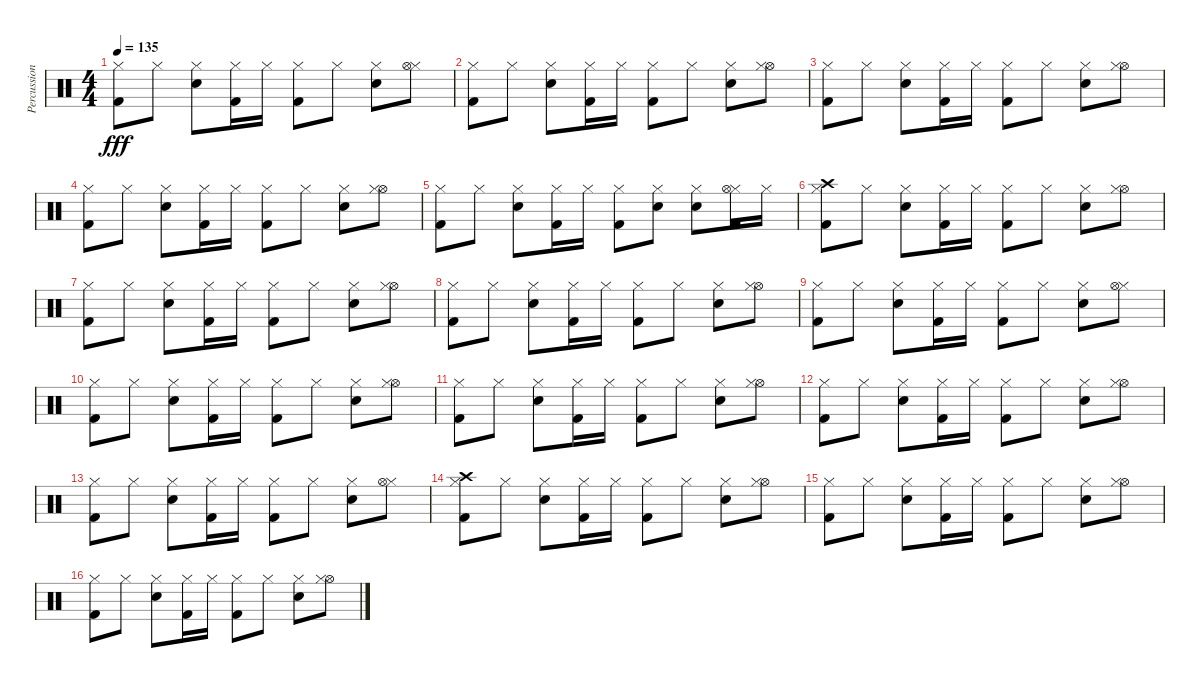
\track ("Percussion" "Percussion") {instrument percussion}
\staff {score}
\articulation defaults
\ts (4 4)
\tempo 135
\clef neutral
\ks c
("Hi-Hat (closed)" "Kick (hit) 2").8{dy fff} "Hi-Hat (closed)".8 ("Hi-Hat (closed)" "Snare (hit) 2").8 ("Kick (hit) 2" "Hi-Hat (closed)").16 "Hi-Hat (closed)".16 ("Hi-Hat (closed)" "Kick (hit) 2").8 "Hi-Hat (closed)".8 ("Snare (hit) 2" "Hi-Hat (closed)").8 ("Hi-Hat (closed)" "Hi-Hat (open)").8 |
("Hi-Hat (closed)" "Kick (hit) 2").8 "Hi-Hat (closed)".8 ("Hi-Hat (closed)" "Snare (hit) 2").8 ("Hi-Hat (closed)" "Kick (hit) 2").16 "Hi-Hat (closed)".16 ("Hi-Hat (closed)" "Kick (hit) 2").8 "Hi-Hat (closed)".8 ("Snare (hit) 2" "Hi-Hat (closed)").8 ("Hi-Hat (open)" "Hi-Hat (closed)").8 |
("Hi-Hat (closed)" "Kick (hit) 2").8 "Hi-Hat (closed)".8 ("Hi-Hat (closed)" "Snare (hit) 2").8 ("Kick (hit) 2" "Hi-Hat (closed)").16 "Hi-Hat (closed)".16 ("Hi-Hat (closed)" "Kick (hit) 2").8 "Hi-Hat (closed)".8 ("Hi-Hat (closed)" "Snare (hit) 2").8 ("Hi-Hat (open)" "Hi-Hat (closed)").8 |
("Hi-Hat (closed)" "Kick (hit) 2").8 "Hi-Hat (closed)".8 ("Snare (hit) 2" "Hi-Hat (closed)").8 ("Hi-Hat (closed)" "Kick (hit) 2").16 "Hi-Hat (closed)".16 ("Hi-Hat (closed)" "Kick (hit) 2").8 "Hi-Hat (closed)".8 ("Hi-Hat (closed)" "Snare (hit) 2").8 ("Hi-Hat (open)" "Hi-Hat (closed)").8 |
("Hi-Hat (closed)" "Kick (hit) 2").8 "Hi-Hat (closed)".8 ("Hi-Hat (closed)" "Snare (hit) 2").8 ("Kick (hit) 2" "Hi-Hat (closed)").16 "Hi-Hat (closed)".16 ("Hi-Hat (closed)" "Kick (hit) 2").8 ("Hi-Hat (closed)" "Snare (hit) 2").8 ("Snare (hit) 2" "Hi-Hat (closed)").8 ("Hi-Hat (closed)" "Hi-Hat (open)" "Kick (hit) 2").16 "Hi-Hat (closed)".16 |
("Crash high (hit)" "Hi-Hat (closed)" "Kick (hit) 2").8 "Hi-Hat (closed)".8 ("Hi-Hat (closed)" "Snare (hit) 2").8 ("Hi-Hat (closed)" "Kick (hit) 2").16 "Hi-Hat (closed)".16 ("Hi-Hat (closed)" "Kick (hit) 2").8 "Hi-Hat (closed)".8 ("Snare (hit) 2" "Hi-Hat (closed)").8 ("Hi-Hat (open)" "Hi-Hat (closed)").8 |
("Hi-Hat (closed)" "Kick (hit) 2").8 "Hi-Hat (closed)".8 ("Hi-Hat (closed)" "Snare (hit) 2").8 ("Kick (hit) 2" "Hi-Hat (closed)").16 "Hi-Hat (closed)".16 ("Hi-Hat (closed)" "Kick (hit) 2").8 "Hi-Hat (closed)".8 ("Hi-Hat (closed)" "Snare (hit) 2").8 ("Hi-Hat (open)" "Hi-Hat (closed)").8 |
("Hi-Hat (closed)" "Kick (hit) 2").8 "Hi-Hat (closed)".8 ("Snare (hit) 2" "Hi-Hat (closed)").8 ("Hi-Hat (closed)" "Kick (hit) 2").16 "Hi-Hat (closed)".16 ("Hi-Hat (closed)" "Kick (hit) 2").8 "Hi-Hat (closed)".8 ("Hi-Hat (closed)" "Snare (hit) 2").8 ("Hi-Hat (open)" "Hi-Hat (closed)").8 |
("Hi-Hat (closed)" "Kick (hit) 2").8 "Hi-Hat (closed)".8 ("Hi-Hat (closed)" "Snare (hit) 2").8 ("Kick (hit) 2" "Hi-Hat (closed)").16 "Hi-Hat (closed)".16 ("Hi-Hat (closed)" "Kick (hit) 2").8 "Hi-Hat (closed)".8 ("Snare (hit) 2" "Hi-Hat (closed)").8 ("Hi-Hat (closed)" "Hi-Hat (open)").8 |
("Hi-Hat (closed)" "Kick (hit) 2").8 "Hi-Hat (closed)".8 ("Hi-Hat (closed)" "Snare (hit) 2").8 ("Hi-Hat (closed)" "Kick (hit) 2").16 "Hi-Hat (closed)".16 ("Hi-Hat (closed)" "Kick (hit) 2").8 "Hi-Hat (closed)".8 ("Snare (hit) 2" "Hi-Hat (closed)").8 ("Hi-Hat (open)" "Hi-Hat (closed)").8 |
("Hi-Hat (closed)" "Kick (hit) 2").8 "Hi-Hat (closed)".8 ("Hi-Hat (closed)" "Snare (hit) 2").8 ("Kick (hit) 2" "Hi-Hat (closed)").16 "Hi-Hat (closed)".16 ("Hi-Hat (closed)" "Kick (hit) 2").8 "Hi-Hat (closed)".8 ("Hi-Hat (closed)" "Snare (hit) 2").8 ("Hi-Hat (open)" "Hi-Hat (closed)").8 |
("Hi-Hat (closed)" "Kick (hit) 2").8 "Hi-Hat (closed)".8 ("Snare (hit) 2" "Hi-Hat (closed)").8 ("Hi-Hat (closed)" "Kick (hit) 2").16 "Hi-Hat (closed)".16 ("Hi-Hat (closed)" "Kick (hit) 2").8 "Hi-Hat (closed)".8 ("Hi-Hat (closed)" "Snare (hit) 2").8 ("Hi-Hat (open)" "Hi-Hat (closed)").8 |
("Hi-Hat (closed)" "Kick (hit) 2").8 "Hi-Hat (closed)".8 ("Hi-Hat (closed)" "Snare (hit) 2").8 ("Kick (hit) 2" "Hi-Hat (closed)").16 "Hi-Hat (closed)".16 ("Hi-Hat (closed)" "Kick (hit) 2").8 "Hi-Hat (closed)".8 ("Snare (hit) 2" "Hi-Hat (closed)").8 ("Hi-Hat (closed)" "Hi-Hat (open)").8 |
("Crash high (hit)" "Hi-Hat (closed)" "Kick (hit) 2").8 "Hi-Hat (closed)".8 ("Hi-Hat (closed)" "Snare (hit) 2").8 ("Hi-Hat (closed)" "Kick (hit) 2").16 "Hi-Hat (closed)".16 ("Hi-Hat (closed)" "Kick (hit) 2").8 "Hi-Hat (closed)".8 ("Snare (hit) 2" "Hi-Hat (closed)").8 ("Hi-Hat (open)" "Hi-Hat (closed)").8 |
("Hi-Hat (closed)" "Kick (hit) 2").8 "Hi-Hat (closed)".8 ("Hi-Hat (closed)" "Snare (hit) 2").8 ("Kick (hit) 2" "Hi-Hat (closed)").16 "Hi-Hat (closed)".16 ("Hi-Hat (closed)" "Kick (hit) 2").8 "Hi-Hat (closed)".8 ("Hi-Hat (closed)" "Snare (hit) 2").8 ("Hi-Hat (open)" "Hi-Hat (closed)").8 |
("Hi-Hat (closed)" "Kick (hit) 2").8 "Hi-Hat (closed)".8 ("Snare (hit) 2" "Hi-Hat (closed)").8 ("Hi-Hat (closed)" "Kick (hit) 2").16 "Hi-Hat (closed)".16 ("Hi-Hat (closed)" "Kick (hit) 2").8 "Hi-Hat (closed)".8 ("Hi-Hat (closed)" "Snare (hit) 2").8 ("Hi-Hat (open)" "Hi-Hat (closed)").8
